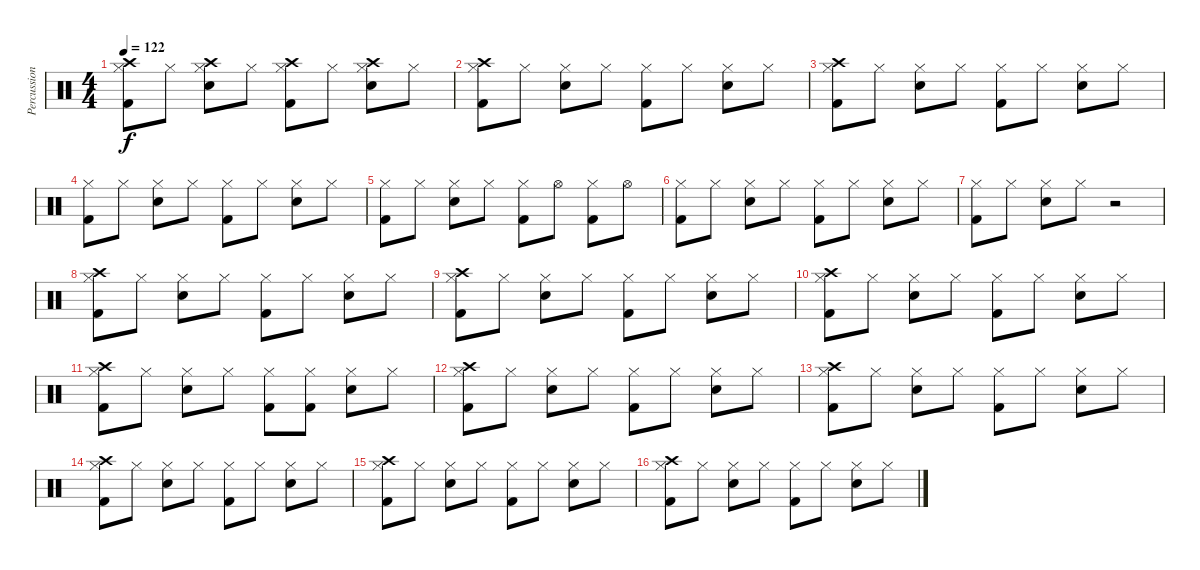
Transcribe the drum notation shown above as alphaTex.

\track ("Percussion" "Percussion") {instrument percussion}
\staff {score}
\articulation defaults
\ts (4 4)
\tempo 122
\clef neutral
\ks c
("Hi-Hat (closed)" "Crash high (hit)" "Kick (hit) 2").8{dy f} "Hi-Hat (closed)".8 ("Hi-Hat (closed)" "Crash high (hit)" "Snare (hit) 2").8 "Hi-Hat (closed)".8 ("Hi-Hat (closed)" "Crash high (hit)" "Kick (hit) 2").8 "Hi-Hat (closed)".8 ("Hi-Hat (closed)" "Crash high (hit)" "Snare (hit) 2").8 "Hi-Hat (closed)".8 |
("Hi-Hat (closed)" "Crash high (hit)" "Kick (hit) 2").8 "Hi-Hat (closed)".8 ("Hi-Hat (closed)" "Snare (hit) 2").8 "Hi-Hat (closed)".8 ("Hi-Hat (closed)" "Kick (hit) 2").8 "Hi-Hat (closed)".8 ("Hi-Hat (closed)" "Snare (hit) 2").8 "Hi-Hat (closed)".8 |
("Hi-Hat (closed)" "Crash high (hit)" "Kick (hit) 2").8 "Hi-Hat (closed)".8 ("Hi-Hat (closed)" "Snare (hit) 2").8 "Hi-Hat (closed)".8 ("Hi-Hat (closed)" "Kick (hit) 2").8 "Hi-Hat (closed)".8 ("Hi-Hat (closed)" "Snare (hit) 2").8 "Hi-Hat (closed)".8 |
("Hi-Hat (closed)" "Kick (hit) 2").8 "Hi-Hat (closed)".8 ("Hi-Hat (closed)" "Snare (hit) 2").8 "Hi-Hat (closed)".8 ("Hi-Hat (closed)" "Kick (hit) 2").8 "Hi-Hat (closed)".8 ("Hi-Hat (closed)" "Snare (hit) 2").8 "Hi-Hat (closed)".8 |
("Hi-Hat (closed)" "Kick (hit) 2").8 "Hi-Hat (closed)".8 ("Hi-Hat (closed)" "Snare (hit) 2").8 "Hi-Hat (closed)".8 ("Hi-Hat (closed)" "Kick (hit) 2").8 "Hi-Hat (open)".8 ("Hi-Hat (closed)" "Kick (hit) 2").8 "Hi-Hat (open)".8 |
("Hi-Hat (closed)" "Kick (hit) 2").8 "Hi-Hat (closed)".8 ("Hi-Hat (closed)" "Snare (hit) 2").8 "Hi-Hat (closed)".8 ("Hi-Hat (closed)" "Kick (hit) 2").8 "Hi-Hat (closed)".8 ("Hi-Hat (closed)" "Snare (hit) 2").8 "Hi-Hat (closed)".8 |
("Hi-Hat (closed)" "Kick (hit) 2").8 "Hi-Hat (closed)".8 ("Hi-Hat (closed)" "Snare (hit) 2").8 "Hi-Hat (closed)".8 r.2 |
("Hi-Hat (closed)" "Crash high (hit)" "Kick (hit) 2").8 "Hi-Hat (closed)".8 ("Hi-Hat (closed)" "Snare (hit) 2").8 "Hi-Hat (closed)".8 ("Hi-Hat (closed)" "Kick (hit) 2").8 "Hi-Hat (closed)".8 ("Hi-Hat (closed)" "Snare (hit) 2").8 "Hi-Hat (closed)".8 |
("Hi-Hat (closed)" "Crash high (hit)" "Kick (hit) 2").8 "Hi-Hat (closed)".8 ("Hi-Hat (closed)" "Snare (hit) 2").8 "Hi-Hat (closed)".8 ("Hi-Hat (closed)" "Kick (hit) 2").8 "Hi-Hat (closed)".8 ("Hi-Hat (closed)" "Snare (hit) 2").8 "Hi-Hat (closed)".8 |
("Hi-Hat (closed)" "Crash high (hit)" "Kick (hit) 2").8 "Hi-Hat (closed)".8 ("Hi-Hat (closed)" "Snare (hit) 2").8 "Hi-Hat (closed)".8 ("Hi-Hat (closed)" "Kick (hit) 2").8 "Hi-Hat (closed)".8 ("Hi-Hat (closed)" "Snare (hit) 2").8 "Hi-Hat (closed)".8 |
("Hi-Hat (closed)" "Crash high (hit)" "Kick (hit) 2").8 "Hi-Hat (closed)".8 ("Hi-Hat (closed)" "Snare (hit) 2").8 "Hi-Hat (closed)".8 ("Hi-Hat (closed)" "Kick (hit) 2").8 ("Hi-Hat (closed)" "Kick (hit) 2").8 ("Hi-Hat (closed)" "Snare (hit) 2").8 "Hi-Hat (closed)".8 |
("Hi-Hat (closed)" "Crash high (hit)" "Kick (hit) 2").8 "Hi-Hat (closed)".8 ("Hi-Hat (closed)" "Snare (hit) 2").8 "Hi-Hat (closed)".8 ("Hi-Hat (closed)" "Kick (hit) 2").8 "Hi-Hat (closed)".8 ("Hi-Hat (closed)" "Snare (hit) 2").8 "Hi-Hat (closed)".8 |
("Hi-Hat (closed)" "Crash high (hit)" "Kick (hit) 2").8 "Hi-Hat (closed)".8 ("Hi-Hat (closed)" "Snare (hit) 2").8 "Hi-Hat (closed)".8 ("Hi-Hat (closed)" "Kick (hit) 2").8 "Hi-Hat (closed)".8 ("Hi-Hat (closed)" "Snare (hit) 2").8 "Hi-Hat (closed)".8 |
("Hi-Hat (closed)" "Crash high (hit)" "Kick (hit) 2").8 "Hi-Hat (closed)".8 ("Hi-Hat (closed)" "Snare (hit) 2").8 "Hi-Hat (closed)".8 ("Hi-Hat (closed)" "Kick (hit) 2").8 "Hi-Hat (closed)".8 ("Hi-Hat (closed)" "Snare (hit) 2").8 "Hi-Hat (closed)".8 |
("Hi-Hat (closed)" "Crash high (hit)" "Kick (hit) 2").8 "Hi-Hat (closed)".8 ("Hi-Hat (closed)" "Snare (hit) 2").8 "Hi-Hat (closed)".8 ("Hi-Hat (closed)" "Kick (hit) 2").8 "Hi-Hat (closed)".8 ("Hi-Hat (closed)" "Snare (hit) 2").8 "Hi-Hat (closed)".8 |
("Hi-Hat (closed)" "Crash high (hit)" "Kick (hit) 2").8 "Hi-Hat (closed)".8 ("Hi-Hat (closed)" "Snare (hit) 2").8 "Hi-Hat (closed)".8 ("Hi-Hat (closed)" "Kick (hit) 2").8 "Hi-Hat (closed)".8 ("Hi-Hat (closed)" "Snare (hit) 2").8 "Hi-Hat (closed)".8
